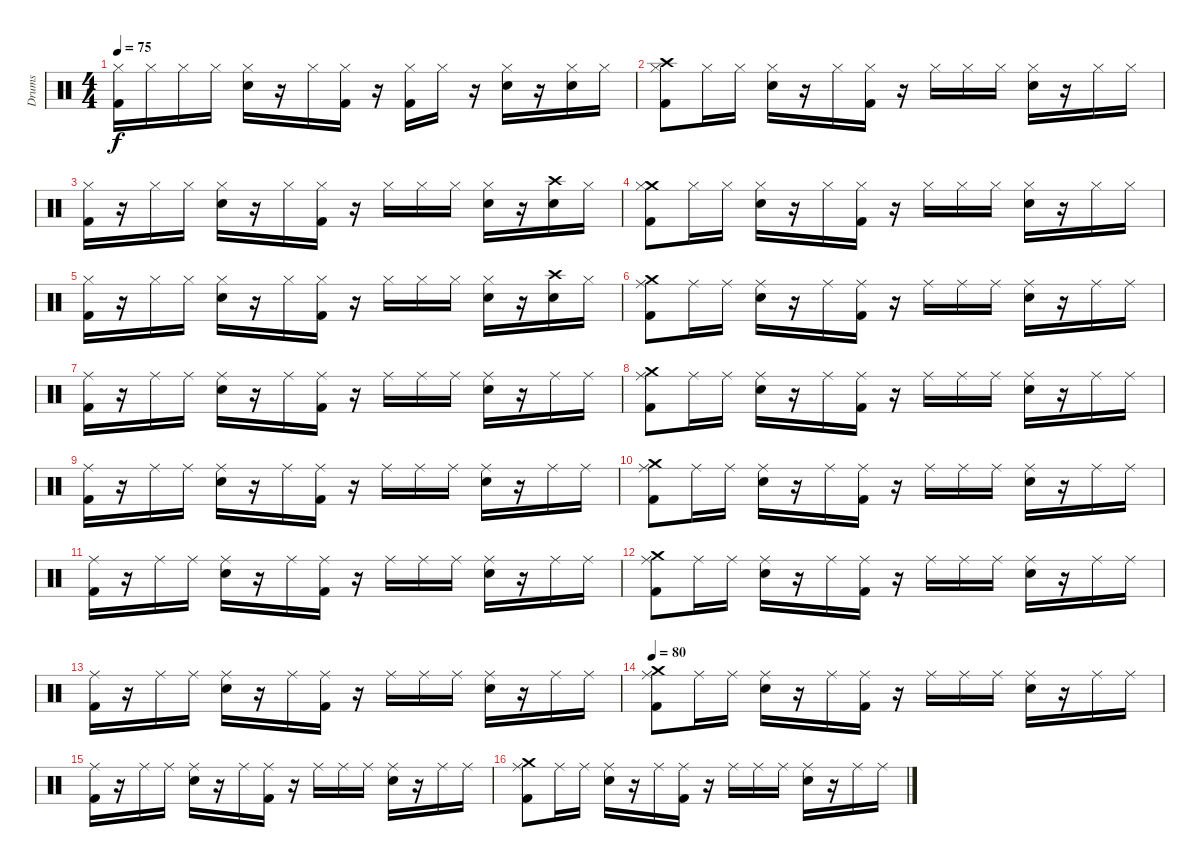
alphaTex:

\track ("Drums" "Drums") {instrument percussion}
\staff {score}
\articulation defaults
\ts (4 4)
\tempo 75
\clef neutral
\ks c
("Hi-Hat (closed)" "Kick (hit) 2").16{dy f} "Hi-Hat (closed)".16 "Hi-Hat (closed)".16 "Hi-Hat (closed)".16 ("Hi-Hat (closed)" "Snare (hit) 2").16 r.16 "Hi-Hat (closed)".16 ("Kick (hit) 2" "Hi-Hat (closed)").16 r.16 ("Hi-Hat (closed)" "Kick (hit) 2").16 "Hi-Hat (closed)".16 r.16 ("Snare (hit) 2" "Hi-Hat (closed)").16 r.16 ("Snare (hit) 2" "Hi-Hat (closed)").16 "Hi-Hat (closed)".16 |
("Crash high (hit)" "Kick (hit) 2" "Hi-Hat (closed)").8 "Hi-Hat (closed)".16 "Hi-Hat (closed)".16 ("Snare (hit) 2" "Hi-Hat (closed)").16 r.16 "Hi-Hat (closed)".16 ("Hi-Hat (closed)" "Kick (hit) 2").16 r.16 "Hi-Hat (closed)".16 "Hi-Hat (closed)".16 "Hi-Hat (closed)".16 ("Snare (hit) 2" "Hi-Hat (closed)").16 r.16 "Hi-Hat (closed)".16 "Hi-Hat (closed)".16 |
("Hi-Hat (closed)" "Kick (hit) 2").16 r.16 "Hi-Hat (closed)".16 "Hi-Hat (closed)".16 ("Hi-Hat (closed)" "Snare (hit) 2").16 r.16 "Hi-Hat (closed)".16 ("Kick (hit) 2" "Hi-Hat (closed)").16 r.16 "Hi-Hat (closed)".16 "Hi-Hat (closed)".16 "Hi-Hat (closed)".16 ("Hi-Hat (closed)" "Snare (hit) 2").16 r.16 ("Crash high (hit)" "Snare (hit) 2").16 "Hi-Hat (closed)".16 |
("Crash medium (hit)" "Kick (hit) 2" "Hi-Hat (closed)").8 "Hi-Hat (closed)".16 "Hi-Hat (closed)".16 ("Snare (hit) 2" "Hi-Hat (closed)").16 r.16 "Hi-Hat (closed)".16 ("Hi-Hat (closed)" "Kick (hit) 2").16 r.16 "Hi-Hat (closed)".16 "Hi-Hat (closed)".16 "Hi-Hat (closed)".16 ("Hi-Hat (closed)" "Snare (hit) 2").16 r.16 "Hi-Hat (closed)".16 "Hi-Hat (closed)".16 |
("Hi-Hat (closed)" "Kick (hit) 2").16 r.16 "Hi-Hat (closed)".16 "Hi-Hat (closed)".16 ("Hi-Hat (closed)" "Snare (hit) 2").16 r.16 "Hi-Hat (closed)".16 ("Kick (hit) 2" "Hi-Hat (closed)").16 r.16 "Hi-Hat (closed)".16 "Hi-Hat (closed)".16 "Hi-Hat (closed)".16 ("Hi-Hat (closed)" "Snare (hit) 2").16 r.16 ("Crash high (hit)" "Snare (hit) 2").16 "Hi-Hat (closed)".16 |
("Crash medium (hit)" "Ride (middle)" "Kick (hit) 2").8 "Ride (middle)".16 "Ride (middle)".16 ("Snare (hit) 2" "Ride (middle)").16 r.16 "Ride (middle)".16 ("Ride (middle)" "Kick (hit) 2").16 r.16 "Ride (middle)".16 "Ride (middle)".16 "Ride (middle)".16 ("Ride (middle)" "Snare (hit) 2").16 r.16 "Ride (middle)".16 "Ride (middle)".16 |
("Kick (hit) 2" "Ride (middle)").16 r.16 "Ride (middle)".16 "Ride (middle)".16 ("Snare (hit) 2" "Ride (middle)").16 r.16 "Ride (middle)".16 ("Ride (middle)" "Kick (hit) 2").16 r.16 "Ride (middle)".16 "Ride (middle)".16 "Ride (middle)".16 ("Ride (middle)" "Snare (hit) 2").16 r.16 "Ride (middle)".16 "Ride (middle)".16 |
("Crash medium (hit)" "Ride (middle)" "Kick (hit) 2").8 "Ride (middle)".16 "Ride (middle)".16 ("Snare (hit) 2" "Ride (middle)").16 r.16 "Ride (middle)".16 ("Ride (middle)" "Kick (hit) 2").16 r.16 "Ride (middle)".16 "Ride (middle)".16 "Ride (middle)".16 ("Ride (middle)" "Snare (hit) 2").16 r.16 "Ride (middle)".16 "Ride (middle)".16 |
("Kick (hit) 2" "Ride (middle)").16 r.16 "Ride (middle)".16 "Ride (middle)".16 ("Snare (hit) 2" "Ride (middle)").16 r.16 "Ride (middle)".16 ("Ride (middle)" "Kick (hit) 2").16 r.16 "Ride (middle)".16 "Ride (middle)".16 "Ride (middle)".16 ("Ride (middle)" "Snare (hit) 2").16 r.16 "Ride (middle)".16 "Ride (middle)".16 |
("Crash medium (hit)" "Ride (middle)" "Kick (hit) 2").8 "Ride (middle)".16 "Ride (middle)".16 ("Snare (hit) 2" "Ride (middle)").16 r.16 "Ride (middle)".16 ("Ride (middle)" "Kick (hit) 2").16 r.16 "Ride (middle)".16 "Ride (middle)".16 "Ride (middle)".16 ("Ride (middle)" "Snare (hit) 2").16 r.16 "Ride (middle)".16 "Ride (middle)".16 |
("Kick (hit) 2" "Ride (middle)").16 r.16 "Ride (middle)".16 "Ride (middle)".16 ("Snare (hit) 2" "Ride (middle)").16 r.16 "Ride (middle)".16 ("Ride (middle)" "Kick (hit) 2").16 r.16 "Ride (middle)".16 "Ride (middle)".16 "Ride (middle)".16 ("Ride (middle)" "Snare (hit) 2").16 r.16 "Ride (middle)".16 "Ride (middle)".16 |
("Crash medium (hit)" "Ride (middle)" "Kick (hit) 2").8 "Ride (middle)".16 "Ride (middle)".16 ("Snare (hit) 2" "Ride (middle)").16 r.16 "Ride (middle)".16 ("Ride (middle)" "Kick (hit) 2").16 r.16 "Ride (middle)".16 "Ride (middle)".16 "Ride (middle)".16 ("Ride (middle)" "Snare (hit) 2").16 r.16 "Ride (middle)".16 "Ride (middle)".16 |
("Kick (hit) 2" "Ride (middle)").16 r.16 "Ride (middle)".16 "Ride (middle)".16 ("Snare (hit) 2" "Ride (middle)").16 r.16 "Ride (middle)".16 ("Ride (middle)" "Kick (hit) 2").16 r.16 "Ride (middle)".16 "Ride (middle)".16 "Ride (middle)".16 ("Ride (middle)" "Snare (hit) 2").16 r.16 "Ride (middle)".16 "Ride (middle)".16 |
\tempo 80
("Crash medium (hit)" "Ride (middle)" "Kick (hit) 2").8 "Ride (middle)".16 "Ride (middle)".16 ("Snare (hit) 2" "Ride (middle)").16 r.16 "Ride (middle)".16 ("Ride (middle)" "Kick (hit) 2").16 r.16 "Ride (middle)".16 "Ride (middle)".16 "Ride (middle)".16 ("Ride (middle)" "Snare (hit) 2").16 r.16 "Ride (middle)".16 "Ride (middle)".16 |
("Kick (hit) 2" "Ride (middle)").16 r.16 "Ride (middle)".16 "Ride (middle)".16 ("Snare (hit) 2" "Ride (middle)").16 r.16 "Ride (middle)".16 ("Ride (middle)" "Kick (hit) 2").16 r.16 "Ride (middle)".16 "Ride (middle)".16 "Ride (middle)".16 ("Ride (middle)" "Snare (hit) 2").16 r.16 "Ride (middle)".16 "Ride (middle)".16 |
("Crash medium (hit)" "Ride (middle)" "Kick (hit) 2").8 "Ride (middle)".16 "Ride (middle)".16 ("Snare (hit) 2" "Ride (middle)").16 r.16 "Ride (middle)".16 ("Ride (middle)" "Kick (hit) 2").16 r.16 "Ride (middle)".16 "Ride (middle)".16 "Ride (middle)".16 ("Ride (middle)" "Snare (hit) 2").16 r.16 "Ride (middle)".16 "Ride (middle)".16
